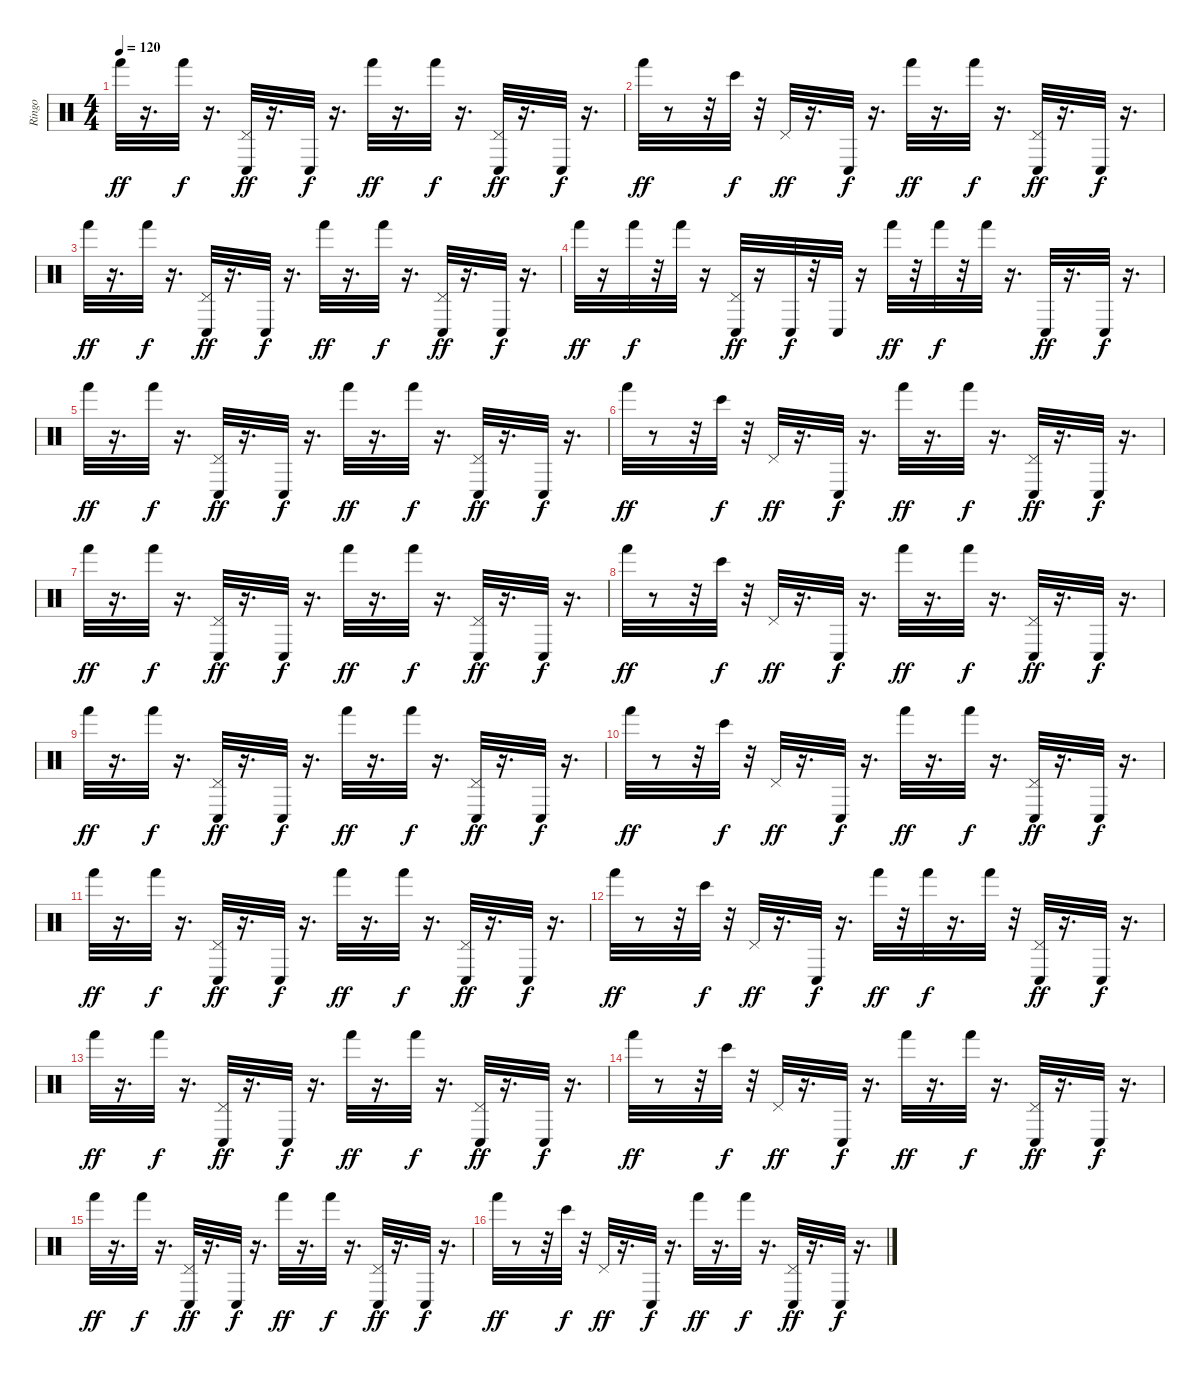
\track ("Ringo" "Ringo") {instrument percussion}
\staff {score}
\articulation defaults
\ts (4 4)
\tempo 120
\clef neutral
\ks c "Hand (hit)".32{dy ff}
r.16{d} "Hand (hit)".32{dy f} r.16{d} ("Pedal Hi-Hat (hit)" "Conga low (hit)").32{dy ff} r.16{d} "Conga low (hit)".32{dy f} r.16{d} "Hand (hit)".32{dy ff} r.16{d} "Hand (hit)".32{dy f} r.16{d} ("Pedal Hi-Hat (hit)" "Conga low (hit)").32{dy ff} r.16{d} "Conga low (hit)".32{dy f} r.16{d} |
"Hand (hit)".32{dy ff} r.8 r.32 "Bongo High (hit)".32{dy f} r.32 "Pedal Hi-Hat (hit)".32{dy ff} r.16{d} "Conga low (hit)".32{dy f} r.16{d} "Hand (hit)".32{dy ff} r.16{d} "Hand (hit)".32{dy f} r.16{d} ("Conga low (hit)" "Pedal Hi-Hat (hit)").32{dy ff} r.16{d} "Conga low (hit)".32{dy f} r.16{d} |
"Hand (hit)".32{dy ff} r.16{d} "Hand (hit)".32{dy f} r.16{d} ("Pedal Hi-Hat (hit)" "Conga low (hit)").32{dy ff} r.16{d} "Conga low (hit)".32{dy f} r.16{d} "Hand (hit)".32{dy ff} r.16{d} "Hand (hit)".32{dy f} r.16{d} ("Pedal Hi-Hat (hit)" "Conga low (hit)").32{dy ff} r.16{d} "Conga low (hit)".32{dy f} r.16{d} |
"Hand (hit)".32{dy ff} r.16 "Hand (hit)".32{dy f} r.32 "Hand (hit)".32 r.16 ("Pedal Hi-Hat (hit)" "Conga low (hit)").32{dy ff} r.16 "Conga low (hit)".32{dy f} r.32 "Conga low (hit)".32 r.16 "Hand (hit)".32{dy ff} r.32 "Hand (hit)".32{dy f} r.32 "Hand (hit)".32 r.16{d} "Conga low (hit)".32{dy ff} r.16{d} "Conga low (hit)".32{dy f} r.16{d} |
"Hand (hit)".32{dy ff} r.16{d} "Hand (hit)".32{dy f} r.16{d} ("Pedal Hi-Hat (hit)" "Conga low (hit)").32{dy ff} r.16{d} "Conga low (hit)".32{dy f} r.16{d} "Hand (hit)".32{dy ff} r.16{d} "Hand (hit)".32{dy f} r.16{d} ("Conga low (hit)" "Pedal Hi-Hat (hit)").32{dy ff} r.16{d} "Conga low (hit)".32{dy f} r.16{d} |
"Hand (hit)".32{dy ff} r.8 r.32 "Bongo High (hit)".32{dy f} r.32 "Pedal Hi-Hat (hit)".32{dy ff} r.16{d} "Conga low (hit)".32{dy f} r.16{d} "Hand (hit)".32{dy ff} r.16{d} "Hand (hit)".32{dy f} r.16{d} ("Pedal Hi-Hat (hit)" "Conga low (hit)").32{dy ff} r.16{d} "Conga low (hit)".32{dy f} r.16{d} |
"Hand (hit)".32{dy ff} r.16{d} "Hand (hit)".32{dy f} r.16{d} ("Conga low (hit)" "Pedal Hi-Hat (hit)").32{dy ff} r.16{d} "Conga low (hit)".32{dy f} r.16{d} "Hand (hit)".32{dy ff} r.16{d} "Hand (hit)".32{dy f} r.16{d} ("Pedal Hi-Hat (hit)" "Conga low (hit)").32{dy ff} r.16{d} "Conga low (hit)".32{dy f} r.16{d} |
"Hand (hit)".32{dy ff} r.8 r.32 "Bongo High (hit)".32{dy f} r.32 "Pedal Hi-Hat (hit)".32{dy ff} r.16{d} "Conga low (hit)".32{dy f} r.16{d} "Hand (hit)".32{dy ff} r.16{d} "Hand (hit)".32{dy f} r.16{d} ("Pedal Hi-Hat (hit)" "Conga low (hit)").32{dy ff} r.16{d} "Conga low (hit)".32{dy f} r.16{d} |
"Hand (hit)".32{dy ff} r.16{d} "Hand (hit)".32{dy f} r.16{d} ("Conga low (hit)" "Pedal Hi-Hat (hit)").32{dy ff} r.16{d} "Conga low (hit)".32{dy f} r.16{d} "Hand (hit)".32{dy ff} r.16{d} "Hand (hit)".32{dy f} r.16{d} ("Conga low (hit)" "Pedal Hi-Hat (hit)").32{dy ff} r.16{d} "Conga low (hit)".32{dy f} r.16{d} |
"Hand (hit)".32{dy ff} r.8 r.32 "Bongo High (hit)".32{dy f} r.32 "Pedal Hi-Hat (hit)".32{dy ff} r.16{d} "Conga low (hit)".32{dy f} r.16{d} "Hand (hit)".32{dy ff} r.16{d} "Hand (hit)".32{dy f} r.16{d} ("Pedal Hi-Hat (hit)" "Conga low (hit)").32{dy ff} r.16{d} "Conga low (hit)".32{dy f} r.16{d} |
"Hand (hit)".32{dy ff} r.16{d} "Hand (hit)".32{dy f} r.16{d} ("Conga low (hit)" "Pedal Hi-Hat (hit)").32{dy ff} r.16{d} "Conga low (hit)".32{dy f} r.16{d} "Hand (hit)".32{dy ff} r.16{d} "Hand (hit)".32{dy f} r.16{d} ("Conga low (hit)" "Pedal Hi-Hat (hit)").32{dy ff} r.16{d} "Conga low (hit)".32{dy f} r.16{d} |
"Hand (hit)".32{dy ff} r.8 r.32 "Bongo High (hit)".32{dy f} r.32 "Pedal Hi-Hat (hit)".32{dy ff} r.16{d} "Conga low (hit)".32{dy f} r.16{d} "Hand (hit)".32{dy ff} r.32 "Hand (hit)".32{dy f} r.16{d} "Hand (hit)".32 r.32 ("Pedal Hi-Hat (hit)" "Conga low (hit)").32{dy ff} r.16{d} "Conga low (hit)".32{dy f} r.16{d} |
"Hand (hit)".32{dy ff} r.16{d} "Hand (hit)".32{dy f} r.16{d} ("Conga low (hit)" "Pedal Hi-Hat (hit)").32{dy ff} r.16{d} "Conga low (hit)".32{dy f} r.16{d} "Hand (hit)".32{dy ff} r.16{d} "Hand (hit)".32{dy f} r.16{d} ("Conga low (hit)" "Pedal Hi-Hat (hit)").32{dy ff} r.16{d} "Conga low (hit)".32{dy f} r.16{d} |
"Hand (hit)".32{dy ff} r.8 r.32 "Bongo High (hit)".32{dy f} r.32 "Pedal Hi-Hat (hit)".32{dy ff} r.16{d} "Conga low (hit)".32{dy f} r.16{d} "Hand (hit)".32{dy ff} r.16{d} "Hand (hit)".32{dy f} r.16{d} ("Pedal Hi-Hat (hit)" "Conga low (hit)").32{dy ff} r.16{d} "Conga low (hit)".32{dy f} r.16{d} |
"Hand (hit)".32{dy ff} r.16{d} "Hand (hit)".32{dy f} r.16{d} ("Conga low (hit)" "Pedal Hi-Hat (hit)").32{dy ff} r.16{d} "Conga low (hit)".32{dy f} r.16{d} "Hand (hit)".32{dy ff} r.16{d} "Hand (hit)".32{dy f} r.16{d} ("Pedal Hi-Hat (hit)" "Conga low (hit)").32{dy ff} r.16{d} "Conga low (hit)".32{dy f} r.16{d} |
"Hand (hit)".32{dy ff} r.8 r.32 "Bongo High (hit)".32{dy f} r.32 "Pedal Hi-Hat (hit)".32{dy ff} r.16{d} "Conga low (hit)".32{dy f} r.16{d} "Hand (hit)".32{dy ff} r.16{d} "Hand (hit)".32{dy f} r.16{d} ("Conga low (hit)" "Pedal Hi-Hat (hit)").32{dy ff} r.16{d} "Conga low (hit)".32{dy f} r.16{d}
